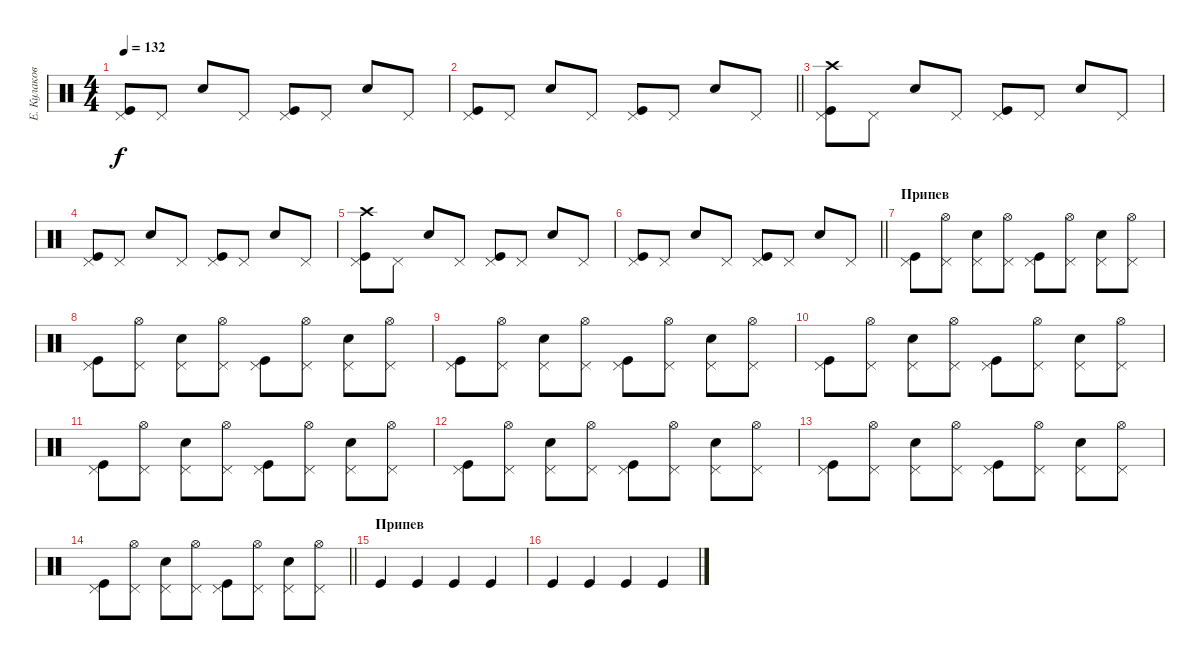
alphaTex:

\track ("Е. Кулаков" "Е. Кулаков") {instrument percussion}
\staff {score}
\articulation defaults
\ts (4 4)
\tempo 132
\clef neutral
\ks c
("Kick (hit)" "Pedal Hi-Hat (hit)").8{dy f} "Pedal Hi-Hat (hit)".8 "Snare (hit) 2".8 "Pedal Hi-Hat (hit)".8 ("Kick (hit)" "Pedal Hi-Hat (hit)").8 "Pedal Hi-Hat (hit)".8 "Snare (hit) 2".8 "Pedal Hi-Hat (hit)".8 |
\barLineRight lightlight
("Kick (hit)" "Pedal Hi-Hat (hit)").8 "Pedal Hi-Hat (hit)".8 "Snare (hit) 2".8 "Pedal Hi-Hat (hit)".8 ("Kick (hit)" "Pedal Hi-Hat (hit)").8 "Pedal Hi-Hat (hit)".8 "Snare (hit) 2".8 "Pedal Hi-Hat (hit)".8 |
\section ("" "")
("Kick (hit)" "Pedal Hi-Hat (hit)" "Crash high (hit)").8 "Pedal Hi-Hat (hit)".8 "Snare (hit) 2".8 "Pedal Hi-Hat (hit)".8 ("Kick (hit)" "Pedal Hi-Hat (hit)").8 "Pedal Hi-Hat (hit)".8 "Snare (hit) 2".8 "Pedal Hi-Hat (hit)".8 |
("Kick (hit)" "Pedal Hi-Hat (hit)").8 "Pedal Hi-Hat (hit)".8 "Snare (hit) 2".8 "Pedal Hi-Hat (hit)".8 ("Kick (hit)" "Pedal Hi-Hat (hit)").8 "Pedal Hi-Hat (hit)".8 "Snare (hit) 2".8 "Pedal Hi-Hat (hit)".8 |
("Kick (hit)" "Pedal Hi-Hat (hit)" "Crash high (hit)").8 "Pedal Hi-Hat (hit)".8 "Snare (hit) 2".8 "Pedal Hi-Hat (hit)".8 ("Kick (hit)" "Pedal Hi-Hat (hit)").8 "Pedal Hi-Hat (hit)".8 "Snare (hit) 2".8 "Pedal Hi-Hat (hit)".8 |
\barLineRight lightlight
("Kick (hit)" "Pedal Hi-Hat (hit)").8 "Pedal Hi-Hat (hit)".8 "Snare (hit) 2".8 "Pedal Hi-Hat (hit)".8 ("Kick (hit)" "Pedal Hi-Hat (hit)").8 "Pedal Hi-Hat (hit)".8 "Snare (hit) 2".8 "Pedal Hi-Hat (hit)".8 |
\section ("" "Припев")
("Kick (hit)" "Pedal Hi-Hat (hit)").8 ("Hi-Hat (open)" "Pedal Hi-Hat (hit)").8 ("Pedal Hi-Hat (hit)" "Snare (hit) 2").8 ("Hi-Hat (open)" "Pedal Hi-Hat (hit)").8 ("Kick (hit)" "Pedal Hi-Hat (hit)").8 ("Hi-Hat (open)" "Pedal Hi-Hat (hit)").8 ("Pedal Hi-Hat (hit)" "Snare (hit) 2").8 ("Hi-Hat (open)" "Pedal Hi-Hat (hit)").8 |
("Kick (hit)" "Pedal Hi-Hat (hit)").8 ("Hi-Hat (open)" "Pedal Hi-Hat (hit)").8 ("Pedal Hi-Hat (hit)" "Snare (hit) 2").8 ("Hi-Hat (open)" "Pedal Hi-Hat (hit)").8 ("Kick (hit)" "Pedal Hi-Hat (hit)").8 ("Hi-Hat (open)" "Pedal Hi-Hat (hit)").8 ("Pedal Hi-Hat (hit)" "Snare (hit) 2").8 ("Hi-Hat (open)" "Pedal Hi-Hat (hit)").8 |
("Kick (hit)" "Pedal Hi-Hat (hit)").8 ("Hi-Hat (open)" "Pedal Hi-Hat (hit)").8 ("Pedal Hi-Hat (hit)" "Snare (hit) 2").8 ("Hi-Hat (open)" "Pedal Hi-Hat (hit)").8 ("Kick (hit)" "Pedal Hi-Hat (hit)").8 ("Hi-Hat (open)" "Pedal Hi-Hat (hit)").8 ("Pedal Hi-Hat (hit)" "Snare (hit) 2").8 ("Hi-Hat (open)" "Pedal Hi-Hat (hit)").8 |
("Kick (hit)" "Pedal Hi-Hat (hit)").8 ("Hi-Hat (open)" "Pedal Hi-Hat (hit)").8 ("Pedal Hi-Hat (hit)" "Snare (hit) 2").8 ("Hi-Hat (open)" "Pedal Hi-Hat (hit)").8 ("Kick (hit)" "Pedal Hi-Hat (hit)").8 ("Hi-Hat (open)" "Pedal Hi-Hat (hit)").8 ("Pedal Hi-Hat (hit)" "Snare (hit) 2").8 ("Hi-Hat (open)" "Pedal Hi-Hat (hit)").8 |
("Kick (hit)" "Pedal Hi-Hat (hit)").8 ("Hi-Hat (open)" "Pedal Hi-Hat (hit)").8 ("Pedal Hi-Hat (hit)" "Snare (hit) 2").8 ("Hi-Hat (open)" "Pedal Hi-Hat (hit)").8 ("Kick (hit)" "Pedal Hi-Hat (hit)").8 ("Hi-Hat (open)" "Pedal Hi-Hat (hit)").8 ("Pedal Hi-Hat (hit)" "Snare (hit) 2").8 ("Hi-Hat (open)" "Pedal Hi-Hat (hit)").8 |
("Kick (hit)" "Pedal Hi-Hat (hit)").8 ("Hi-Hat (open)" "Pedal Hi-Hat (hit)").8 ("Pedal Hi-Hat (hit)" "Snare (hit) 2").8 ("Hi-Hat (open)" "Pedal Hi-Hat (hit)").8 ("Kick (hit)" "Pedal Hi-Hat (hit)").8 ("Hi-Hat (open)" "Pedal Hi-Hat (hit)").8 ("Pedal Hi-Hat (hit)" "Snare (hit) 2").8 ("Hi-Hat (open)" "Pedal Hi-Hat (hit)").8 |
("Kick (hit)" "Pedal Hi-Hat (hit)").8 ("Hi-Hat (open)" "Pedal Hi-Hat (hit)").8 ("Pedal Hi-Hat (hit)" "Snare (hit) 2").8 ("Hi-Hat (open)" "Pedal Hi-Hat (hit)").8 ("Kick (hit)" "Pedal Hi-Hat (hit)").8 ("Hi-Hat (open)" "Pedal Hi-Hat (hit)").8 ("Pedal Hi-Hat (hit)" "Snare (hit) 2").8 ("Hi-Hat (open)" "Pedal Hi-Hat (hit)").8 |
\barLineRight lightlight
("Kick (hit)" "Pedal Hi-Hat (hit)").8 ("Hi-Hat (open)" "Pedal Hi-Hat (hit)").8 ("Pedal Hi-Hat (hit)" "Snare (hit) 2").8 ("Hi-Hat (open)" "Pedal Hi-Hat (hit)").8 ("Kick (hit)" "Pedal Hi-Hat (hit)").8 ("Hi-Hat (open)" "Pedal Hi-Hat (hit)").8 ("Pedal Hi-Hat (hit)" "Snare (hit) 2").8 ("Hi-Hat (open)" "Pedal Hi-Hat (hit)").8 |
\section ("" "Припев")
"Kick (hit)".4 "Kick (hit)".4 "Kick (hit)".4 "Kick (hit)".4 |
"Kick (hit)".4 "Kick (hit)".4 "Kick (hit)".4 "Kick (hit)".4
